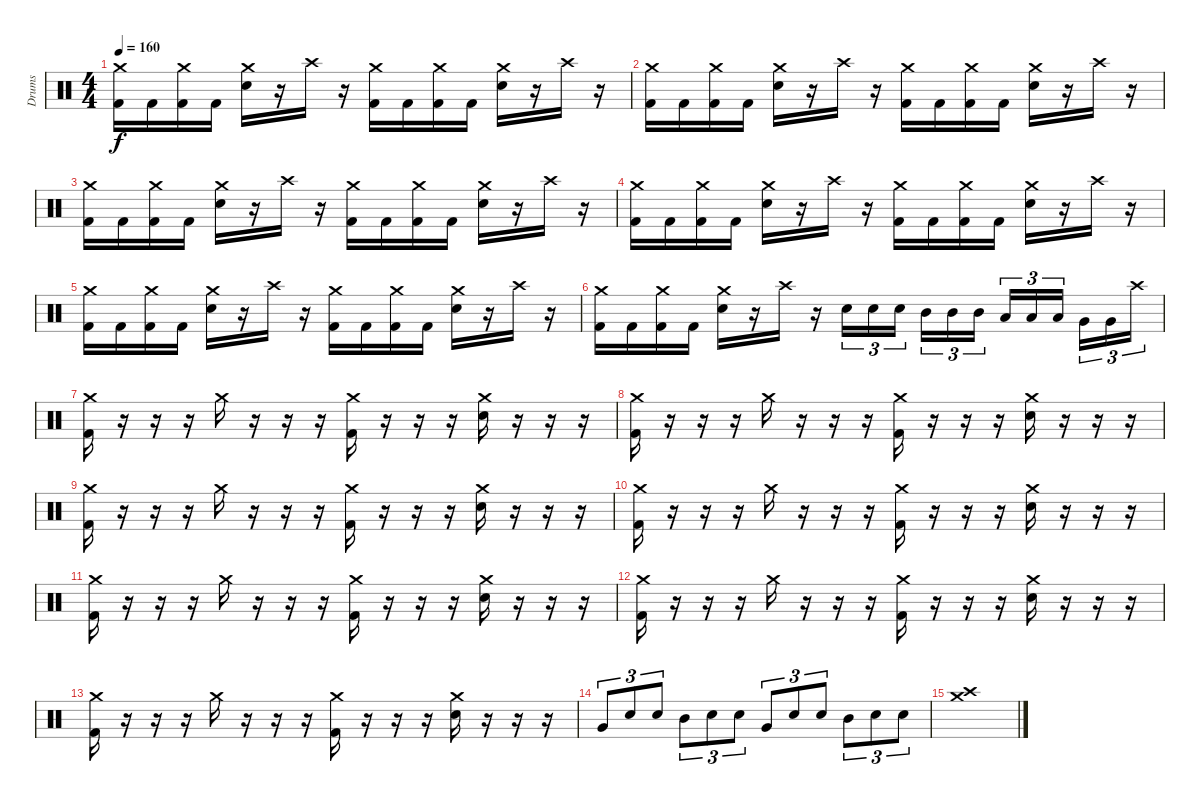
\track ("Drums" "Drums") {instrument percussion}
\staff {score}
\articulation defaults
\ts (4 4)
\tempo 160
\clef neutral
\ks c
("Crash medium (hit)" "Kick (hit) 2").16{dy f} "Kick (hit) 2".16 ("Crash medium (hit)" "Kick (hit) 2").16 "Kick (hit) 2".16 ("Crash medium (hit)" "Snare (hit) 2").16 r.16 "Crash high (hit)".16 r.16 ("Crash medium (hit)" "Kick (hit) 2").16 "Kick (hit) 2".16 ("Crash medium (hit)" "Kick (hit) 2").16 "Kick (hit) 2".16 ("Crash medium (hit)" "Snare (hit) 2").16 r.16 "Crash high (hit)".16 r.16 |
("Crash medium (hit)" "Kick (hit) 2").16 "Kick (hit) 2".16 ("Crash medium (hit)" "Kick (hit) 2").16 "Kick (hit) 2".16 ("Crash medium (hit)" "Snare (hit) 2").16 r.16 "Crash high (hit)".16 r.16 ("Crash medium (hit)" "Kick (hit) 2").16 "Kick (hit) 2".16 ("Crash medium (hit)" "Kick (hit) 2").16 "Kick (hit) 2".16 ("Crash medium (hit)" "Snare (hit) 2").16 r.16 "Crash high (hit)".16 r.16 |
("Crash medium (hit)" "Kick (hit) 2").16 "Kick (hit) 2".16 ("Crash medium (hit)" "Kick (hit) 2").16 "Kick (hit) 2".16 ("Crash medium (hit)" "Snare (hit) 2").16 r.16 "Crash high (hit)".16 r.16 ("Crash medium (hit)" "Kick (hit) 2").16 "Kick (hit) 2".16 ("Crash medium (hit)" "Kick (hit) 2").16 "Kick (hit) 2".16 ("Crash medium (hit)" "Snare (hit) 2").16 r.16 "Crash high (hit)".16 r.16 |
("Crash medium (hit)" "Kick (hit) 2").16 "Kick (hit) 2".16 ("Crash medium (hit)" "Kick (hit) 2").16 "Kick (hit) 2".16 ("Crash medium (hit)" "Snare (hit) 2").16 r.16 "Crash high (hit)".16 r.16 ("Crash medium (hit)" "Kick (hit) 2").16 "Kick (hit) 2".16 ("Crash medium (hit)" "Kick (hit) 2").16 "Kick (hit) 2".16 ("Crash medium (hit)" "Snare (hit) 2").16 r.16 "Crash high (hit)".16 r.16 |
("Crash medium (hit)" "Kick (hit) 2").16 "Kick (hit) 2".16 ("Crash medium (hit)" "Kick (hit) 2").16 "Kick (hit) 2".16 ("Crash medium (hit)" "Snare (hit) 2").16 r.16 "Crash high (hit)".16 r.16 ("Crash medium (hit)" "Kick (hit) 2").16 "Kick (hit) 2".16 ("Crash medium (hit)" "Kick (hit) 2").16 "Kick (hit) 2".16 ("Crash medium (hit)" "Snare (hit) 2").16 r.16 "Crash high (hit)".16 r.16 |
("Crash medium (hit)" "Kick (hit) 2").16 "Kick (hit) 2".16 ("Crash medium (hit)" "Kick (hit) 2").16 "Kick (hit) 2".16 ("Crash medium (hit)" "Snare (hit) 2").16 r.16 "Crash high (hit)".16 r.16 "Snare (hit) 2".16{tu (3 2)} "Snare (hit) 2".16{tu (3 2)} "Snare (hit) 2".16{tu (3 2)} "Mid Tom (hit)".16{tu (3 2)} "Mid Tom (hit)".16{tu (3 2)} "Mid Tom (hit)".16{tu (3 2)} "Low Tom (hit)".16{tu (3 2)} "Low Tom (hit)".16{tu (3 2)} "Low Tom (hit)".16{tu (3 2)} "Very Low Tom (hit)".16{tu (3 2)} "Very Low Tom (hit)".16{tu (3 2)} "Crash high (hit)".16{tu (3 2)} |
("Crash medium (hit)" "Kick (hit) 2").16 r.16 r.16 r.16 "Crash medium (hit)".16 r.16 r.16 r.16 ("Crash medium (hit)" "Kick (hit) 2").16 r.16 r.16 r.16 ("Crash medium (hit)" "Snare (hit) 2").16 r.16 r.16 r.16 |
("Crash medium (hit)" "Kick (hit) 2").16 r.16 r.16 r.16 "Crash medium (hit)".16 r.16 r.16 r.16 ("Crash medium (hit)" "Kick (hit) 2").16 r.16 r.16 r.16 ("Crash medium (hit)" "Snare (hit) 2").16 r.16 r.16 r.16 |
("Crash medium (hit)" "Kick (hit) 2").16 r.16 r.16 r.16 "Crash medium (hit)".16 r.16 r.16 r.16 ("Crash medium (hit)" "Kick (hit) 2").16 r.16 r.16 r.16 ("Crash medium (hit)" "Snare (hit) 2").16 r.16 r.16 r.16 |
("Crash medium (hit)" "Kick (hit) 2").16 r.16 r.16 r.16 "Crash medium (hit)".16 r.16 r.16 r.16 ("Crash medium (hit)" "Kick (hit) 2").16 r.16 r.16 r.16 ("Crash medium (hit)" "Snare (hit) 2").16 r.16 r.16 r.16 |
("Crash medium (hit)" "Kick (hit) 2").16 r.16 r.16 r.16 "Crash medium (hit)".16 r.16 r.16 r.16 ("Crash medium (hit)" "Kick (hit) 2").16 r.16 r.16 r.16 ("Crash medium (hit)" "Snare (hit) 2").16 r.16 r.16 r.16 |
("Crash medium (hit)" "Kick (hit) 2").16 r.16 r.16 r.16 "Crash medium (hit)".16 r.16 r.16 r.16 ("Crash medium (hit)" "Kick (hit) 2").16 r.16 r.16 r.16 ("Crash medium (hit)" "Snare (hit) 2").16 r.16 r.16 r.16 |
("Crash medium (hit)" "Kick (hit) 2").16 r.16 r.16 r.16 "Crash medium (hit)".16 r.16 r.16 r.16 ("Crash medium (hit)" "Kick (hit) 2").16 r.16 r.16 r.16 ("Crash medium (hit)" "Snare (hit) 2").16 r.16 r.16 r.16 |
"Very Low Tom (hit)".8{tu (3 2)} "Snare (hit) 2".8{tu (3 2)} "Snare (hit) 2".8{tu (3 2)} "Mid Tom (hit)".8{tu (3 2)} "Snare (hit) 2".8{tu (3 2)} "Snare (hit) 2".8{tu (3 2)} "Very Low Tom (hit)".8{tu (3 2)} "Snare (hit) 2".8{tu (3 2)} "Snare (hit) 2".8{tu (3 2)} "Mid Tom (hit)".8{tu (3 2)} "Snare (hit) 2".8{tu (3 2)} "Snare (hit) 2".8{tu (3 2)} |
("Crash high (hit)" "Crash medium (hit)").1
